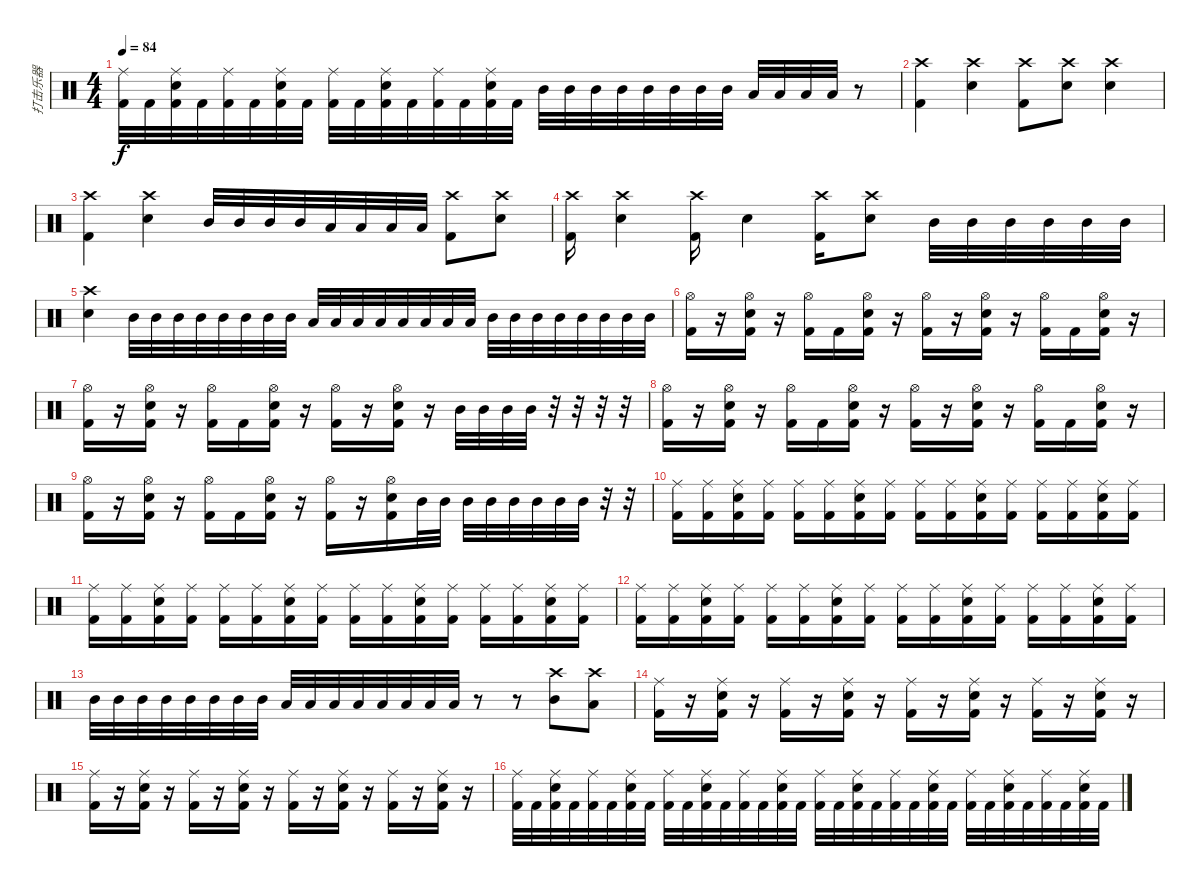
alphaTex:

\track ("打击乐器" "打击乐器") {instrument percussion}
\staff {score}
\articulation defaults
\ts (4 4)
\tempo 84
\clef neutral
\ks c
("Ride (middle)" "Kick (hit) 2").32{dy f} "Kick (hit) 2".32 ("Ride (middle)" "Snare (hit) 2" "Kick (hit) 2").32 "Kick (hit) 2".32 ("Ride (middle)" "Kick (hit) 2").32 "Kick (hit) 2".32 ("Ride (middle)" "Snare (hit) 2" "Kick (hit) 2").32 "Kick (hit) 2".32 ("Ride (middle)" "Kick (hit) 2").32 "Kick (hit) 2".32 ("Ride (middle)" "Snare (hit) 2" "Kick (hit) 2").32 "Kick (hit) 2".32 ("Ride (middle)" "Kick (hit) 2").32 "Kick (hit) 2".32 ("Ride (middle)" "Snare (hit) 2" "Kick (hit) 2").32 "Kick (hit) 2".32 "Mid Tom (hit)".32 "Mid Tom (hit)".32 "Mid Tom (hit)".32 "Mid Tom (hit)".32 "Mid Tom (hit)".32 "Mid Tom (hit)".32 "Mid Tom (hit)".32 "Mid Tom (hit)".32 "Low Tom (hit)".32 "Low Tom (hit)".32 "Low Tom (hit)".32 "Low Tom (hit)".32 r.8 |
("Crash high (hit)" "Kick (hit) 2").4 ("Crash high (hit)" "Snare (hit) 2").4 ("Crash high (hit)" "Kick (hit) 2").8 ("Crash high (hit)" "Snare (hit) 2").8 ("Crash high (hit)" "Snare (hit) 2").4 |
("Crash high (hit)" "Kick (hit) 2").4 ("Crash high (hit)" "Snare (hit) 2").4 "Mid Tom (hit)".32 "Mid Tom (hit)".32 "Mid Tom (hit)".32 "Mid Tom (hit)".32 "Low Tom (hit)".32 "Low Tom (hit)".32 "Low Tom (hit)".32 "Low Tom (hit)".32 ("Crash high (hit)" "Kick (hit) 2").8 ("Crash high (hit)" "Snare (hit) 2").8 |
("Crash high (hit)" "Kick (hit) 2").16 ("Crash high (hit)" "Snare (hit) 2").4 ("Crash high (hit)" "Kick (hit) 2").16 "Snare (hit) 2".4 ("Crash high (hit)" "Kick (hit) 2").16 ("Crash high (hit)" "Snare (hit) 2").8 "Mid Tom (hit)".32 "Mid Tom (hit)".32 "Mid Tom (hit)".32 "Mid Tom (hit)".32 "Mid Tom (hit)".32 "Mid Tom (hit)".32 |
("Crash high (hit)" "Snare (hit) 2").4 "Mid Tom (hit)".32 "Mid Tom (hit)".32 "Mid Tom (hit)".32 "Mid Tom (hit)".32 "Mid Tom (hit)".32 "Mid Tom (hit)".32 "Mid Tom (hit)".32 "Mid Tom (hit)".32 "Low Tom (hit)".32 "Low Tom (hit)".32 "Low Tom (hit)".32 "Low Tom (hit)".32 "Low Tom (hit)".32 "Low Tom (hit)".32 "Low Tom (hit)".32 "Low Tom (hit)".32 "Mid Tom (hit)".32 "Mid Tom (hit)".32 "Mid Tom (hit)".32 "Mid Tom (hit)".32 "Mid Tom (hit)".32 "Mid Tom (hit)".32 "Mid Tom (hit)".32 "Mid Tom (hit)".32 |
("Hi-Hat (open)" "Kick (hit) 2").16 r.16 ("Hi-Hat (open)" "Snare (hit) 2" "Kick (hit) 2").16 r.16 ("Hi-Hat (open)" "Kick (hit) 2").16 "Kick (hit) 2".16 ("Hi-Hat (open)" "Snare (hit) 2" "Kick (hit) 2").16 r.16 ("Hi-Hat (open)" "Kick (hit) 2").16 r.16 ("Hi-Hat (open)" "Snare (hit) 2" "Kick (hit) 2").16 r.16 ("Hi-Hat (open)" "Kick (hit) 2").16 "Kick (hit) 2".16 ("Hi-Hat (open)" "Snare (hit) 2" "Kick (hit) 2").16 r.16 |
("Hi-Hat (open)" "Kick (hit) 2").16 r.16 ("Hi-Hat (open)" "Snare (hit) 2" "Kick (hit) 2").16 r.16 ("Hi-Hat (open)" "Kick (hit) 2").16 "Kick (hit) 2".16 ("Hi-Hat (open)" "Snare (hit) 2" "Kick (hit) 2").16 r.16 ("Hi-Hat (open)" "Kick (hit) 2").16 r.16 ("Hi-Hat (open)" "Snare (hit) 2" "Kick (hit) 2").16 r.16 "Mid Tom (hit)".32 "Mid Tom (hit)".32 "Mid Tom (hit)".32 "Mid Tom (hit)".32 r.32 r.32 r.32 r.32 |
("Hi-Hat (open)" "Kick (hit) 2").16 r.16 ("Hi-Hat (open)" "Snare (hit) 2" "Kick (hit) 2").16 r.16 ("Hi-Hat (open)" "Kick (hit) 2").16 "Kick (hit) 2".16 ("Hi-Hat (open)" "Snare (hit) 2" "Kick (hit) 2").16 r.16 ("Hi-Hat (open)" "Kick (hit) 2").16 r.16 ("Hi-Hat (open)" "Snare (hit) 2" "Kick (hit) 2").16 r.16 ("Hi-Hat (open)" "Kick (hit) 2").16 "Kick (hit) 2".16 ("Hi-Hat (open)" "Snare (hit) 2" "Kick (hit) 2").16 r.16 |
("Hi-Hat (open)" "Kick (hit) 2").16 r.16 ("Hi-Hat (open)" "Snare (hit) 2" "Kick (hit) 2").16 r.16 ("Hi-Hat (open)" "Kick (hit) 2").16 "Kick (hit) 2".16 ("Hi-Hat (open)" "Snare (hit) 2" "Kick (hit) 2").16 r.16 ("Hi-Hat (open)" "Kick (hit) 2").16 r.16 ("Hi-Hat (open)" "Snare (hit) 2" "Kick (hit) 2").16 "Mid Tom (hit)".32 "Mid Tom (hit)".32 "Mid Tom (hit)".32 "Mid Tom (hit)".32 "Mid Tom (hit)".32 "Mid Tom (hit)".32 "Mid Tom (hit)".32 "Mid Tom (hit)".32 r.32 r.32 |
("Ride (middle)" "Kick (hit) 2").16 ("Ride (middle)" "Kick (hit) 2").16 ("Ride (middle)" "Snare (hit) 2" "Kick (hit) 2").16 ("Ride (middle)" "Kick (hit) 2").16 ("Ride (middle)" "Kick (hit) 2").16 ("Ride (middle)" "Kick (hit) 2").16 ("Ride (middle)" "Snare (hit) 2" "Kick (hit) 2").16 ("Ride (middle)" "Kick (hit) 2").16 ("Ride (middle)" "Kick (hit) 2").16 ("Ride (middle)" "Kick (hit) 2").16 ("Ride (middle)" "Snare (hit) 2" "Kick (hit) 2").16 ("Ride (middle)" "Kick (hit) 2").16 ("Ride (middle)" "Kick (hit) 2").16 ("Ride (middle)" "Kick (hit) 2").16 ("Ride (middle)" "Snare (hit) 2" "Kick (hit) 2").16 ("Ride (middle)" "Kick (hit) 2").16 |
("Ride (middle)" "Kick (hit) 2").16 ("Ride (middle)" "Kick (hit) 2").16 ("Ride (middle)" "Snare (hit) 2" "Kick (hit) 2").16 ("Ride (middle)" "Kick (hit) 2").16 ("Ride (middle)" "Kick (hit) 2").16 ("Ride (middle)" "Kick (hit) 2").16 ("Ride (middle)" "Snare (hit) 2" "Kick (hit) 2").16 ("Ride (middle)" "Kick (hit) 2").16 ("Ride (middle)" "Kick (hit) 2").16 ("Ride (middle)" "Kick (hit) 2").16 ("Ride (middle)" "Snare (hit) 2" "Kick (hit) 2").16 ("Ride (middle)" "Kick (hit) 2").16 ("Ride (middle)" "Kick (hit) 2").16 ("Ride (middle)" "Kick (hit) 2").16 ("Ride (middle)" "Snare (hit) 2" "Kick (hit) 2").16 ("Ride (middle)" "Kick (hit) 2").16 |
("Ride (middle)" "Kick (hit) 2").16 ("Ride (middle)" "Kick (hit) 2").16 ("Ride (middle)" "Snare (hit) 2" "Kick (hit) 2").16 ("Ride (middle)" "Kick (hit) 2").16 ("Ride (middle)" "Kick (hit) 2").16 ("Ride (middle)" "Kick (hit) 2").16 ("Ride (middle)" "Snare (hit) 2" "Kick (hit) 2").16 ("Ride (middle)" "Kick (hit) 2").16 ("Ride (middle)" "Kick (hit) 2").16 ("Ride (middle)" "Kick (hit) 2").16 ("Ride (middle)" "Snare (hit) 2" "Kick (hit) 2").16 ("Ride (middle)" "Kick (hit) 2").16 ("Ride (middle)" "Kick (hit) 2").16 ("Ride (middle)" "Kick (hit) 2").16 ("Ride (middle)" "Snare (hit) 2" "Kick (hit) 2").16 ("Ride (middle)" "Kick (hit) 2").16 |
"Mid Tom (hit)".32 "Mid Tom (hit)".32 "Mid Tom (hit)".32 "Mid Tom (hit)".32 "Mid Tom (hit)".32 "Mid Tom (hit)".32 "Mid Tom (hit)".32 "Mid Tom (hit)".32 "Low Tom (hit)".32 "Low Tom (hit)".32 "Low Tom (hit)".32 "Low Tom (hit)".32 "Low Tom (hit)".32 "Low Tom (hit)".32 "Low Tom (hit)".32 "Low Tom (hit)".32 r.8 r.8 ("Crash high (hit)" "Mid Tom (hit)").8 ("Crash high (hit)" "Low Tom (hit)").8 |
("Ride (middle)" "Kick (hit) 2").16 r.16 ("Ride (middle)" "Snare (hit) 2" "Kick (hit) 2").16 r.16 ("Ride (middle)" "Kick (hit) 2").16 r.16 ("Ride (middle)" "Snare (hit) 2" "Kick (hit) 2").16 r.16 ("Ride (middle)" "Kick (hit) 2").16 r.16 ("Ride (middle)" "Snare (hit) 2" "Kick (hit) 2").16 r.16 ("Ride (middle)" "Kick (hit) 2").16 r.16 ("Ride (middle)" "Snare (hit) 2" "Kick (hit) 2").16 r.16 |
("Ride (middle)" "Kick (hit) 2").16 r.16 ("Ride (middle)" "Snare (hit) 2" "Kick (hit) 2").16 r.16 ("Ride (middle)" "Kick (hit) 2").16 r.16 ("Ride (middle)" "Snare (hit) 2" "Kick (hit) 2").16 r.16 ("Ride (middle)" "Kick (hit) 2").16 r.16 ("Ride (middle)" "Snare (hit) 2" "Kick (hit) 2").16 r.16 ("Ride (middle)" "Kick (hit) 2").16 r.16 ("Ride (middle)" "Snare (hit) 2" "Kick (hit) 2").16 r.16 |
("Ride (middle)" "Kick (hit) 2").32 "Kick (hit) 2".32 ("Ride (middle)" "Snare (hit) 2" "Kick (hit) 2").32 "Kick (hit) 2".32 ("Ride (middle)" "Kick (hit) 2").32 "Kick (hit) 2".32 ("Ride (middle)" "Snare (hit) 2" "Kick (hit) 2").32 "Kick (hit) 2".32 ("Ride (middle)" "Kick (hit) 2").32 "Kick (hit) 2".32 ("Ride (middle)" "Snare (hit) 2" "Kick (hit) 2").32 "Kick (hit) 2".32 ("Ride (middle)" "Kick (hit) 2").32 "Kick (hit) 2".32 ("Ride (middle)" "Snare (hit) 2" "Kick (hit) 2").32 "Kick (hit) 2".32 ("Ride (middle)" "Kick (hit) 2").32 "Kick (hit) 2".32 ("Ride (middle)" "Snare (hit) 2" "Kick (hit) 2").32 "Kick (hit) 2".32 ("Ride (middle)" "Kick (hit) 2").32 "Kick (hit) 2".32 ("Ride (middle)" "Snare (hit) 2" "Kick (hit) 2").32 "Kick (hit) 2".32 ("Ride (middle)" "Kick (hit) 2").32 "Kick (hit) 2".32 ("Ride (middle)" "Snare (hit) 2" "Kick (hit) 2").32 "Kick (hit) 2".32 ("Ride (middle)" "Kick (hit) 2").32 "Kick (hit) 2".32 ("Ride (middle)" "Snare (hit) 2" "Kick (hit) 2").32 "Kick (hit) 2".32
